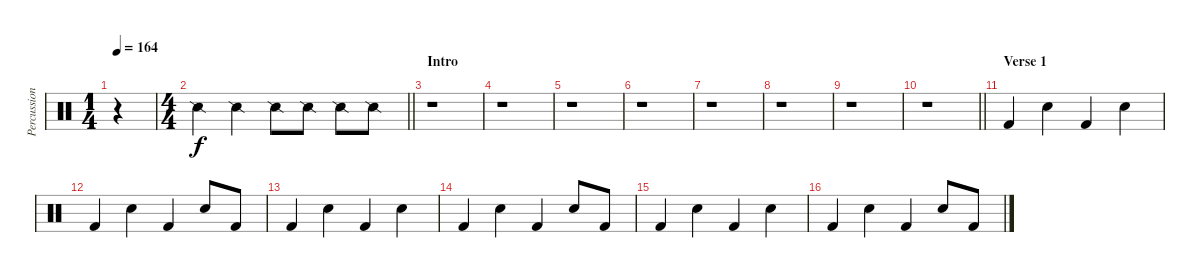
\track ("Percussions" "Percussion") {instrument percussion}
\staff {score}
\articulation defaults
\voice
\ts (1 4)
\tempo 164
\clef neutral
\ks c
r.4{dy f} |
\ts (4 4)
\barLineRight lightlight "Snare (side stick) 2".4 "Snare (side stick) 2".4 "Snare (side stick) 2".8 "Snare (side stick) 2".8 "Snare (side stick) 2".8 "Snare (side stick) 2".8
|
\section ("" "Intro")
r.1 |
r.1 |
r.1 |
r.1 |
r.1 |
r.1 |
r.1 |
\barLineRight lightlight
r.1 |
\section ("" "Verse 1")
"Kick (hit) 2".4 "Snare (hit) 2".4 "Kick (hit) 2".4 "Snare (hit) 2".4 |
"Kick (hit) 2".4 "Snare (hit) 2".4 "Kick (hit) 2".4 "Snare (hit) 2".8 "Kick (hit) 2".8 |
"Kick (hit) 2".4 "Snare (hit) 2".4 "Kick (hit) 2".4 "Snare (hit) 2".4 |
"Kick (hit) 2".4 "Snare (hit) 2".4 "Kick (hit) 2".4 "Snare (hit) 2".8 "Kick (hit) 2".8 |
"Kick (hit) 2".4 "Snare (hit) 2".4 "Kick (hit) 2".4 "Snare (hit) 2".4 |
"Kick (hit) 2".4 "Snare (hit) 2".4 "Kick (hit) 2".4 "Snare (hit) 2".8 "Kick (hit) 2".8
\voice
\clef neutral
\ottava regular
\simile none
\ks c
r.4{dy f} |
\barLineRight lightlight
|
|
|
|
|
|
|
|
\barLineRight lightlight
|
|
|
|
|
|
